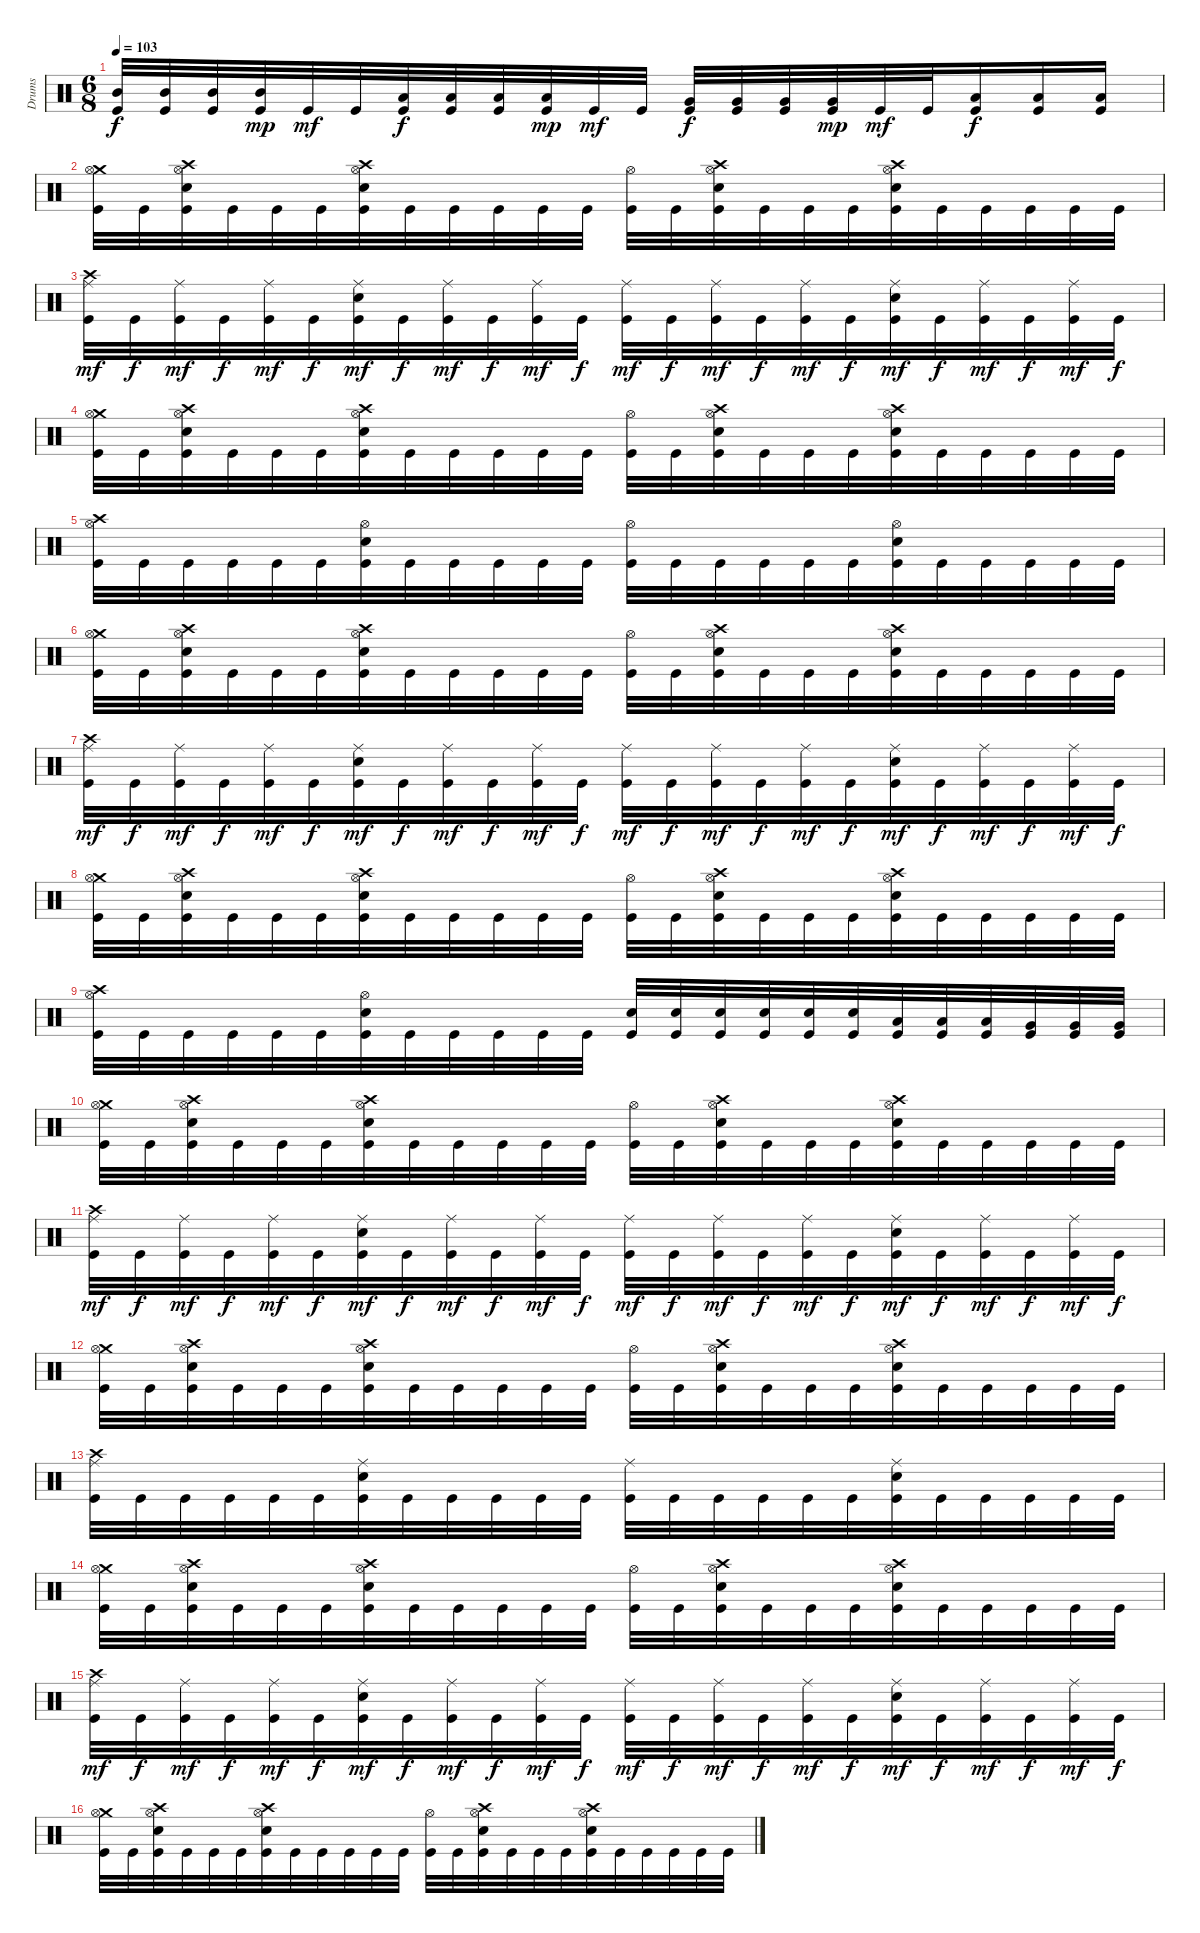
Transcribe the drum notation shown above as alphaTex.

\track ("Drums" "Drums") {instrument percussion}
\staff {score}
\articulation defaults
\ts (6 8)
\tempo 103
\clef neutral
\ks c
("Mid Tom (hit)" "Kick (hit)").32{dy f} ("Mid Tom (hit)" "Kick (hit)").32 ("Mid Tom (hit)" "Kick (hit)").32 ("Mid Tom (hit)" "Kick (hit)").32{dy mp} "Kick (hit)".32{dy mf} "Kick (hit)".32 ("Low Tom (hit)" "Kick (hit)").32{dy f} ("Low Tom (hit)" "Kick (hit)").32 ("Low Tom (hit)" "Kick (hit)").32 ("Low Tom (hit)" "Kick (hit)").32{dy mp} "Kick (hit)".32{dy mf} "Kick (hit)".32 ("Very Low Tom (hit)" "Kick (hit)").32{dy f} ("Very Low Tom (hit)" "Kick (hit)").32 ("Very Low Tom (hit)" "Kick (hit)").32 ("Very Low Tom (hit)" "Kick (hit)").32{dy mp} "Kick (hit)".32{dy mf} "Kick (hit)".32 ("Low Floor Tom (hit)" "Kick (hit)").16{dy f} ("Low Floor Tom (hit)" "Kick (hit)").16 ("Low Floor Tom (hit)" "Kick (hit)").16 |
("Crash medium (hit)" "Hi-Hat (open)" "Kick (hit)").32 "Kick (hit)".32 ("Crash high (hit)" "Hi-Hat (open)" "Electric Snare (hit)" "Kick (hit)").32 "Kick (hit)".32 "Kick (hit)".32 "Kick (hit)".32 ("Crash high (hit)" "Hi-Hat (open)" "Electric Snare (hit)" "Kick (hit)").32 "Kick (hit)".32 "Kick (hit)".32 "Kick (hit)".32 "Kick (hit)".32 "Kick (hit)".32 ("Hi-Hat (open)" "Kick (hit)").32 "Kick (hit)".32 ("Crash high (hit)" "Hi-Hat (open)" "Electric Snare (hit)" "Kick (hit)").32 "Kick (hit)".32 "Kick (hit)".32 "Kick (hit)".32 ("Crash high (hit)" "Hi-Hat (open)" "Electric Snare (hit)" "Kick (hit)").32 "Kick (hit)".32 "Kick (hit)".32 "Kick (hit)".32 "Kick (hit)".32 "Kick (hit)".32 |
("Crash high (hit)" "Ride (middle)" "Kick (hit)").32{dy mf} "Kick (hit)".32{dy f} ("Ride (middle)" "Kick (hit)").32{dy mf} "Kick (hit)".32{dy f} ("Ride (middle)" "Kick (hit)").32{dy mf} "Kick (hit)".32{dy f} ("Ride (middle)" "Electric Snare (hit)" "Kick (hit)").32{dy mf} "Kick (hit)".32{dy f} ("Ride (middle)" "Kick (hit)").32{dy mf} "Kick (hit)".32{dy f} ("Ride (middle)" "Kick (hit)").32{dy mf} "Kick (hit)".32{dy f} ("Ride (middle)" "Kick (hit)").32{dy mf} "Kick (hit)".32{dy f} ("Ride (middle)" "Kick (hit)").32{dy mf} "Kick (hit)".32{dy f} ("Ride (middle)" "Kick (hit)").32{dy mf} "Kick (hit)".32{dy f} ("Ride (middle)" "Electric Snare (hit)" "Kick (hit)").32{dy mf} "Kick (hit)".32{dy f} ("Ride (middle)" "Kick (hit)").32{dy mf} "Kick (hit)".32{dy f} ("Ride (middle)" "Kick (hit)").32{dy mf} "Kick (hit)".32{dy f} |
("Crash medium (hit)" "Hi-Hat (open)" "Kick (hit)").32 "Kick (hit)".32 ("Crash high (hit)" "Hi-Hat (open)" "Electric Snare (hit)" "Kick (hit)").32 "Kick (hit)".32 "Kick (hit)".32 "Kick (hit)".32 ("Crash high (hit)" "Hi-Hat (open)" "Electric Snare (hit)" "Kick (hit)").32 "Kick (hit)".32 "Kick (hit)".32 "Kick (hit)".32 "Kick (hit)".32 "Kick (hit)".32 ("Hi-Hat (open)" "Kick (hit)").32 "Kick (hit)".32 ("Crash high (hit)" "Hi-Hat (open)" "Electric Snare (hit)" "Kick (hit)").32 "Kick (hit)".32 "Kick (hit)".32 "Kick (hit)".32 ("Crash high (hit)" "Hi-Hat (open)" "Electric Snare (hit)" "Kick (hit)").32 "Kick (hit)".32 "Kick (hit)".32 "Kick (hit)".32 "Kick (hit)".32 "Kick (hit)".32 |
("Crash high (hit)" "Hi-Hat (open)" "Kick (hit)").32 "Kick (hit)".32 "Kick (hit)".32 "Kick (hit)".32 "Kick (hit)".32 "Kick (hit)".32 ("Hi-Hat (open)" "Electric Snare (hit)" "Kick (hit)").32 "Kick (hit)".32 "Kick (hit)".32 "Kick (hit)".32 "Kick (hit)".32 "Kick (hit)".32 ("Hi-Hat (open)" "Kick (hit)").32 "Kick (hit)".32 "Kick (hit)".32 "Kick (hit)".32 "Kick (hit)".32 "Kick (hit)".32 ("Hi-Hat (open)" "Electric Snare (hit)" "Kick (hit)").32 "Kick (hit)".32 "Kick (hit)".32 "Kick (hit)".32 "Kick (hit)".32 "Kick (hit)".32 |
("Crash medium (hit)" "Hi-Hat (open)" "Kick (hit)").32 "Kick (hit)".32 ("Crash high (hit)" "Hi-Hat (open)" "Electric Snare (hit)" "Kick (hit)").32 "Kick (hit)".32 "Kick (hit)".32 "Kick (hit)".32 ("Crash high (hit)" "Hi-Hat (open)" "Electric Snare (hit)" "Kick (hit)").32 "Kick (hit)".32 "Kick (hit)".32 "Kick (hit)".32 "Kick (hit)".32 "Kick (hit)".32 ("Hi-Hat (open)" "Kick (hit)").32 "Kick (hit)".32 ("Crash high (hit)" "Hi-Hat (open)" "Electric Snare (hit)" "Kick (hit)").32 "Kick (hit)".32 "Kick (hit)".32 "Kick (hit)".32 ("Crash high (hit)" "Hi-Hat (open)" "Electric Snare (hit)" "Kick (hit)").32 "Kick (hit)".32 "Kick (hit)".32 "Kick (hit)".32 "Kick (hit)".32 "Kick (hit)".32 |
("Crash high (hit)" "Ride (middle)" "Kick (hit)").32{dy mf} "Kick (hit)".32{dy f} ("Ride (middle)" "Kick (hit)").32{dy mf} "Kick (hit)".32{dy f} ("Ride (middle)" "Kick (hit)").32{dy mf} "Kick (hit)".32{dy f} ("Ride (middle)" "Electric Snare (hit)" "Kick (hit)").32{dy mf} "Kick (hit)".32{dy f} ("Ride (middle)" "Kick (hit)").32{dy mf} "Kick (hit)".32{dy f} ("Ride (middle)" "Kick (hit)").32{dy mf} "Kick (hit)".32{dy f} ("Ride (middle)" "Kick (hit)").32{dy mf} "Kick (hit)".32{dy f} ("Ride (middle)" "Kick (hit)").32{dy mf} "Kick (hit)".32{dy f} ("Ride (middle)" "Kick (hit)").32{dy mf} "Kick (hit)".32{dy f} ("Ride (middle)" "Electric Snare (hit)" "Kick (hit)").32{dy mf} "Kick (hit)".32{dy f} ("Ride (middle)" "Kick (hit)").32{dy mf} "Kick (hit)".32{dy f} ("Ride (middle)" "Kick (hit)").32{dy mf} "Kick (hit)".32{dy f} |
("Crash medium (hit)" "Hi-Hat (open)" "Kick (hit)").32 "Kick (hit)".32 ("Crash high (hit)" "Hi-Hat (open)" "Electric Snare (hit)" "Kick (hit)").32 "Kick (hit)".32 "Kick (hit)".32 "Kick (hit)".32 ("Crash high (hit)" "Hi-Hat (open)" "Electric Snare (hit)" "Kick (hit)").32 "Kick (hit)".32 "Kick (hit)".32 "Kick (hit)".32 "Kick (hit)".32 "Kick (hit)".32 ("Hi-Hat (open)" "Kick (hit)").32 "Kick (hit)".32 ("Crash high (hit)" "Hi-Hat (open)" "Electric Snare (hit)" "Kick (hit)").32 "Kick (hit)".32 "Kick (hit)".32 "Kick (hit)".32 ("Crash high (hit)" "Hi-Hat (open)" "Electric Snare (hit)" "Kick (hit)").32 "Kick (hit)".32 "Kick (hit)".32 "Kick (hit)".32 "Kick (hit)".32 "Kick (hit)".32 |
("Crash high (hit)" "Hi-Hat (open)" "Kick (hit)").32 "Kick (hit)".32 "Kick (hit)".32 "Kick (hit)".32 "Kick (hit)".32 "Kick (hit)".32 ("Hi-Hat (open)" "Electric Snare (hit)" "Kick (hit)").32 "Kick (hit)".32 "Kick (hit)".32 "Kick (hit)".32 "Kick (hit)".32 "Kick (hit)".32 ("Electric Snare (hit)" "Kick (hit)").32 ("Electric Snare (hit)" "Kick (hit)").32 ("Electric Snare (hit)" "Kick (hit)").32 ("Electric Snare (hit)" "Kick (hit)").32 ("Electric Snare (hit)" "Kick (hit)").32 ("Electric Snare (hit)" "Kick (hit)").32 ("Low Tom (hit)" "Kick (hit)").32 ("Low Tom (hit)" "Kick (hit)").32 ("Low Tom (hit)" "Kick (hit)").32 ("Very Low Tom (hit)" "Kick (hit)").32 ("Very Low Tom (hit)" "Kick (hit)").32 ("Very Low Tom (hit)" "Kick (hit)").32 |
("Crash medium (hit)" "Hi-Hat (open)" "Kick (hit)").32 "Kick (hit)".32 ("Crash high (hit)" "Hi-Hat (open)" "Electric Snare (hit)" "Kick (hit)").32 "Kick (hit)".32 "Kick (hit)".32 "Kick (hit)".32 ("Crash high (hit)" "Hi-Hat (open)" "Electric Snare (hit)" "Kick (hit)").32 "Kick (hit)".32 "Kick (hit)".32 "Kick (hit)".32 "Kick (hit)".32 "Kick (hit)".32 ("Hi-Hat (open)" "Kick (hit)").32 "Kick (hit)".32 ("Crash high (hit)" "Hi-Hat (open)" "Electric Snare (hit)" "Kick (hit)").32 "Kick (hit)".32 "Kick (hit)".32 "Kick (hit)".32 ("Crash high (hit)" "Hi-Hat (open)" "Electric Snare (hit)" "Kick (hit)").32 "Kick (hit)".32 "Kick (hit)".32 "Kick (hit)".32 "Kick (hit)".32 "Kick (hit)".32 |
("Crash high (hit)" "Ride (middle)" "Kick (hit)").32{dy mf} "Kick (hit)".32{dy f} ("Ride (middle)" "Kick (hit)").32{dy mf} "Kick (hit)".32{dy f} ("Ride (middle)" "Kick (hit)").32{dy mf} "Kick (hit)".32{dy f} ("Ride (middle)" "Electric Snare (hit)" "Kick (hit)").32{dy mf} "Kick (hit)".32{dy f} ("Ride (middle)" "Kick (hit)").32{dy mf} "Kick (hit)".32{dy f} ("Ride (middle)" "Kick (hit)").32{dy mf} "Kick (hit)".32{dy f} ("Ride (middle)" "Kick (hit)").32{dy mf} "Kick (hit)".32{dy f} ("Ride (middle)" "Kick (hit)").32{dy mf} "Kick (hit)".32{dy f} ("Ride (middle)" "Kick (hit)").32{dy mf} "Kick (hit)".32{dy f} ("Ride (middle)" "Electric Snare (hit)" "Kick (hit)").32{dy mf} "Kick (hit)".32{dy f} ("Ride (middle)" "Kick (hit)").32{dy mf} "Kick (hit)".32{dy f} ("Ride (middle)" "Kick (hit)").32{dy mf} "Kick (hit)".32{dy f} |
("Crash medium (hit)" "Hi-Hat (open)" "Kick (hit)").32 "Kick (hit)".32 ("Crash high (hit)" "Hi-Hat (open)" "Electric Snare (hit)" "Kick (hit)").32 "Kick (hit)".32 "Kick (hit)".32 "Kick (hit)".32 ("Crash high (hit)" "Hi-Hat (open)" "Electric Snare (hit)" "Kick (hit)").32 "Kick (hit)".32 "Kick (hit)".32 "Kick (hit)".32 "Kick (hit)".32 "Kick (hit)".32 ("Hi-Hat (open)" "Kick (hit)").32 "Kick (hit)".32 ("Crash high (hit)" "Hi-Hat (open)" "Electric Snare (hit)" "Kick (hit)").32 "Kick (hit)".32 "Kick (hit)".32 "Kick (hit)".32 ("Crash high (hit)" "Hi-Hat (open)" "Electric Snare (hit)" "Kick (hit)").32 "Kick (hit)".32 "Kick (hit)".32 "Kick (hit)".32 "Kick (hit)".32 "Kick (hit)".32 |
("Crash high (hit)" "Ride (middle)" "Kick (hit)").32 "Kick (hit)".32 "Kick (hit)".32 "Kick (hit)".32 "Kick (hit)".32 "Kick (hit)".32 ("Ride (middle)" "Electric Snare (hit)" "Kick (hit)").32 "Kick (hit)".32 "Kick (hit)".32 "Kick (hit)".32 "Kick (hit)".32 "Kick (hit)".32 ("Ride (middle)" "Kick (hit)").32 "Kick (hit)".32 "Kick (hit)".32 "Kick (hit)".32 "Kick (hit)".32 "Kick (hit)".32 ("Ride (middle)" "Electric Snare (hit)" "Kick (hit)").32 "Kick (hit)".32 "Kick (hit)".32 "Kick (hit)".32 "Kick (hit)".32 "Kick (hit)".32 |
("Crash medium (hit)" "Hi-Hat (open)" "Kick (hit)").32 "Kick (hit)".32 ("Crash high (hit)" "Hi-Hat (open)" "Electric Snare (hit)" "Kick (hit)").32 "Kick (hit)".32 "Kick (hit)".32 "Kick (hit)".32 ("Crash high (hit)" "Hi-Hat (open)" "Electric Snare (hit)" "Kick (hit)").32 "Kick (hit)".32 "Kick (hit)".32 "Kick (hit)".32 "Kick (hit)".32 "Kick (hit)".32 ("Hi-Hat (open)" "Kick (hit)").32 "Kick (hit)".32 ("Crash high (hit)" "Hi-Hat (open)" "Electric Snare (hit)" "Kick (hit)").32 "Kick (hit)".32 "Kick (hit)".32 "Kick (hit)".32 ("Crash high (hit)" "Hi-Hat (open)" "Electric Snare (hit)" "Kick (hit)").32 "Kick (hit)".32 "Kick (hit)".32 "Kick (hit)".32 "Kick (hit)".32 "Kick (hit)".32 |
("Crash high (hit)" "Ride (middle)" "Kick (hit)").32{dy mf} "Kick (hit)".32{dy f} ("Ride (middle)" "Kick (hit)").32{dy mf} "Kick (hit)".32{dy f} ("Ride (middle)" "Kick (hit)").32{dy mf} "Kick (hit)".32{dy f} ("Ride (middle)" "Electric Snare (hit)" "Kick (hit)").32{dy mf} "Kick (hit)".32{dy f} ("Ride (middle)" "Kick (hit)").32{dy mf} "Kick (hit)".32{dy f} ("Ride (middle)" "Kick (hit)").32{dy mf} "Kick (hit)".32{dy f} ("Ride (middle)" "Kick (hit)").32{dy mf} "Kick (hit)".32{dy f} ("Ride (middle)" "Kick (hit)").32{dy mf} "Kick (hit)".32{dy f} ("Ride (middle)" "Kick (hit)").32{dy mf} "Kick (hit)".32{dy f} ("Ride (middle)" "Electric Snare (hit)" "Kick (hit)").32{dy mf} "Kick (hit)".32{dy f} ("Ride (middle)" "Kick (hit)").32{dy mf} "Kick (hit)".32{dy f} ("Ride (middle)" "Kick (hit)").32{dy mf} "Kick (hit)".32{dy f} |
("Crash medium (hit)" "Hi-Hat (open)" "Kick (hit)").32 "Kick (hit)".32 ("Crash high (hit)" "Hi-Hat (open)" "Electric Snare (hit)" "Kick (hit)").32 "Kick (hit)".32 "Kick (hit)".32 "Kick (hit)".32 ("Crash high (hit)" "Hi-Hat (open)" "Electric Snare (hit)" "Kick (hit)").32 "Kick (hit)".32 "Kick (hit)".32 "Kick (hit)".32 "Kick (hit)".32 "Kick (hit)".32 ("Hi-Hat (open)" "Kick (hit)").32 "Kick (hit)".32 ("Crash high (hit)" "Hi-Hat (open)" "Electric Snare (hit)" "Kick (hit)").32 "Kick (hit)".32 "Kick (hit)".32 "Kick (hit)".32 ("Crash high (hit)" "Hi-Hat (open)" "Electric Snare (hit)" "Kick (hit)").32 "Kick (hit)".32 "Kick (hit)".32 "Kick (hit)".32 "Kick (hit)".32 "Kick (hit)".32
